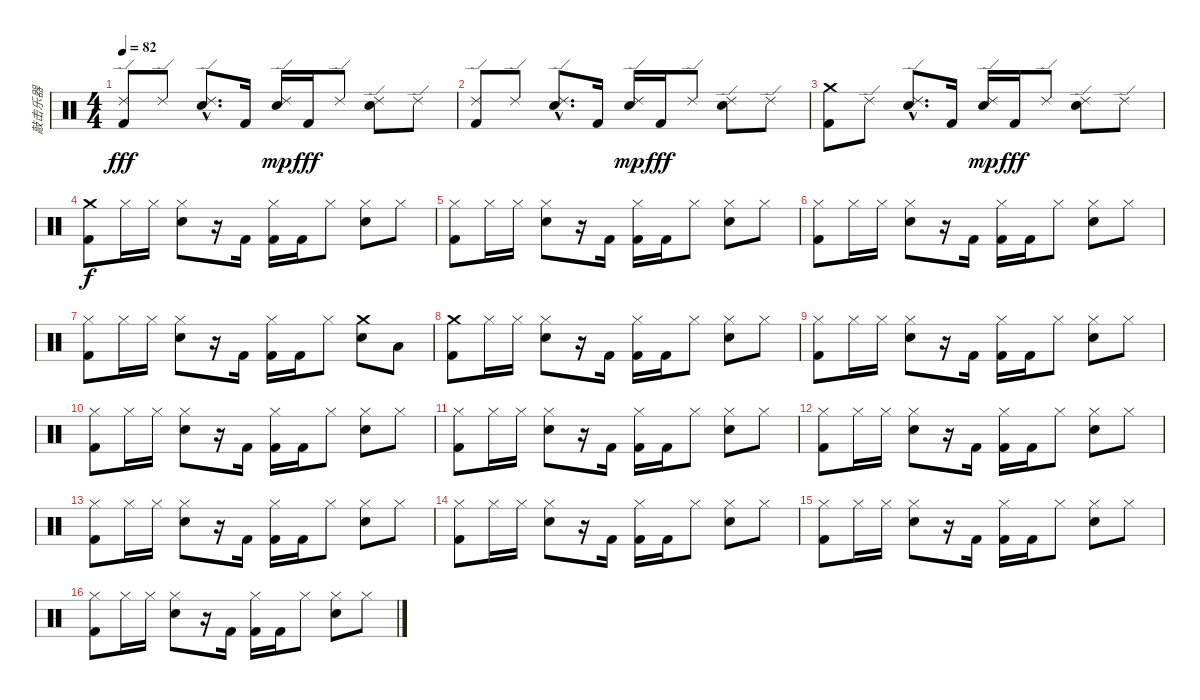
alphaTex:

\track ("敲击乐器" "敲击乐器") {instrument percussion}
\staff {score}
\articulation defaults
\ts (4 4)
\tempo 82
\clef neutral
\ks c
("Ride (edge) 2" "Kick (hit) 2").8{dy fff} "Ride (edge) 2".8 ("Ride (edge) 2"{hac} "Snare (hit) 2"{hac}).8{d} "Kick (hit) 2".16 ("Ride (edge) 2" "Snare (hit) 2").16{dy mp} "Kick (hit) 2".16{dy fff} "Ride (edge) 2".8 ("Ride (edge) 2" "Snare (hit) 2").8 "Ride (edge) 2".8 |
("Ride (edge) 2" "Kick (hit) 2").8 "Ride (edge) 2".8 ("Ride (edge) 2"{hac} "Snare (hit) 2"{hac}).8{d} "Kick (hit) 2".16 ("Ride (edge) 2" "Snare (hit) 2").16{dy mp} "Kick (hit) 2".16{dy fff} "Ride (edge) 2".8 ("Ride (edge) 2" "Snare (hit) 2").8 "Ride (edge) 2".8 |
("Crash medium (hit)" "Kick (hit) 2").8 "Ride (edge) 2".8 ("Ride (edge) 2"{hac} "Snare (hit) 2"{hac}).8{d} "Kick (hit) 2".16 ("Ride (edge) 2" "Snare (hit) 2").16{dy mp} "Kick (hit) 2".16{dy fff} "Ride (edge) 2".8 ("Ride (edge) 2" "Snare (hit) 2").8 "Ride (edge) 2".8 |
("Crash medium (hit)" "Kick (hit) 2").8{dy f} "Hi-Hat (closed)".16 "Hi-Hat (closed)".16 ("Hi-Hat (closed)" "Snare (hit) 2").8 r.16 "Kick (hit) 2".16 ("Hi-Hat (closed)" "Kick (hit) 2").16 "Kick (hit) 2".16 "Hi-Hat (closed)".8 ("Hi-Hat (closed)" "Snare (hit) 2").8 "Hi-Hat (closed)".8 |
("Hi-Hat (closed)" "Kick (hit) 2").8 "Hi-Hat (closed)".16 "Hi-Hat (closed)".16 ("Hi-Hat (closed)" "Snare (hit) 2").8 r.16 "Kick (hit) 2".16 ("Hi-Hat (closed)" "Kick (hit) 2").16 "Kick (hit) 2".16 "Hi-Hat (closed)".8 ("Hi-Hat (closed)" "Snare (hit) 2").8 "Hi-Hat (closed)".8 |
("Hi-Hat (closed)" "Kick (hit) 2").8 "Hi-Hat (closed)".16 "Hi-Hat (closed)".16 ("Hi-Hat (closed)" "Snare (hit) 2").8 r.16 "Kick (hit) 2".16 ("Hi-Hat (closed)" "Kick (hit) 2").16 "Kick (hit) 2".16 "Hi-Hat (closed)".8 ("Hi-Hat (closed)" "Snare (hit) 2").8 "Hi-Hat (closed)".8 |
("Hi-Hat (closed)" "Kick (hit) 2").8 "Hi-Hat (closed)".16 "Hi-Hat (closed)".16 ("Hi-Hat (closed)" "Snare (hit) 2").8 r.16 "Kick (hit) 2".16 ("Hi-Hat (closed)" "Kick (hit) 2").16 "Kick (hit) 2".16 "Hi-Hat (closed)".8 ("Crash medium (hit)" "Snare (hit) 2").8 "Low Tom (hit)".8 |
("Crash medium (hit)" "Kick (hit) 2").8 "Hi-Hat (closed)".16 "Hi-Hat (closed)".16 ("Hi-Hat (closed)" "Snare (hit) 2").8 r.16 "Kick (hit) 2".16 ("Hi-Hat (closed)" "Kick (hit) 2").16 "Kick (hit) 2".16 "Hi-Hat (closed)".8 ("Hi-Hat (closed)" "Snare (hit) 2").8 "Hi-Hat (closed)".8 |
("Hi-Hat (closed)" "Kick (hit) 2").8 "Hi-Hat (closed)".16 "Hi-Hat (closed)".16 ("Hi-Hat (closed)" "Snare (hit) 2").8 r.16 "Kick (hit) 2".16 ("Hi-Hat (closed)" "Kick (hit) 2").16 "Kick (hit) 2".16 "Hi-Hat (closed)".8 ("Hi-Hat (closed)" "Snare (hit) 2").8 "Hi-Hat (closed)".8 |
("Hi-Hat (closed)" "Kick (hit) 2").8 "Hi-Hat (closed)".16 "Hi-Hat (closed)".16 ("Hi-Hat (closed)" "Snare (hit) 2").8 r.16 "Kick (hit) 2".16 ("Hi-Hat (closed)" "Kick (hit) 2").16 "Kick (hit) 2".16 "Hi-Hat (closed)".8 ("Hi-Hat (closed)" "Snare (hit) 2").8 "Hi-Hat (closed)".8 |
("Hi-Hat (closed)" "Kick (hit) 2").8 "Hi-Hat (closed)".16 "Hi-Hat (closed)".16 ("Hi-Hat (closed)" "Snare (hit) 2").8 r.16 "Kick (hit) 2".16 ("Hi-Hat (closed)" "Kick (hit) 2").16 "Kick (hit) 2".16 "Hi-Hat (closed)".8 ("Hi-Hat (closed)" "Snare (hit) 2").8 "Hi-Hat (closed)".8 |
("Hi-Hat (closed)" "Kick (hit) 2").8 "Hi-Hat (closed)".16 "Hi-Hat (closed)".16 ("Hi-Hat (closed)" "Snare (hit) 2").8 r.16 "Kick (hit) 2".16 ("Hi-Hat (closed)" "Kick (hit) 2").16 "Kick (hit) 2".16 "Hi-Hat (closed)".8 ("Hi-Hat (closed)" "Snare (hit) 2").8 "Hi-Hat (closed)".8 |
("Hi-Hat (closed)" "Kick (hit) 2").8 "Hi-Hat (closed)".16 "Hi-Hat (closed)".16 ("Hi-Hat (closed)" "Snare (hit) 2").8 r.16 "Kick (hit) 2".16 ("Hi-Hat (closed)" "Kick (hit) 2").16 "Kick (hit) 2".16 "Hi-Hat (closed)".8 ("Hi-Hat (closed)" "Snare (hit) 2").8 "Hi-Hat (closed)".8 |
("Hi-Hat (closed)" "Kick (hit) 2").8 "Hi-Hat (closed)".16 "Hi-Hat (closed)".16 ("Hi-Hat (closed)" "Snare (hit) 2").8 r.16 "Kick (hit) 2".16 ("Hi-Hat (closed)" "Kick (hit) 2").16 "Kick (hit) 2".16 "Hi-Hat (closed)".8 ("Hi-Hat (closed)" "Snare (hit) 2").8 "Hi-Hat (closed)".8 |
("Hi-Hat (closed)" "Kick (hit) 2").8 "Hi-Hat (closed)".16 "Hi-Hat (closed)".16 ("Hi-Hat (closed)" "Snare (hit) 2").8 r.16 "Kick (hit) 2".16 ("Hi-Hat (closed)" "Kick (hit) 2").16 "Kick (hit) 2".16 "Hi-Hat (closed)".8 ("Hi-Hat (closed)" "Snare (hit) 2").8 "Hi-Hat (closed)".8 |
("Hi-Hat (closed)" "Kick (hit) 2").8 "Hi-Hat (closed)".16 "Hi-Hat (closed)".16 ("Hi-Hat (closed)" "Snare (hit) 2").8 r.16 "Kick (hit) 2".16 ("Hi-Hat (closed)" "Kick (hit) 2").16 "Kick (hit) 2".16 "Hi-Hat (closed)".8 ("Hi-Hat (closed)" "Snare (hit) 2").8 "Hi-Hat (closed)".8
